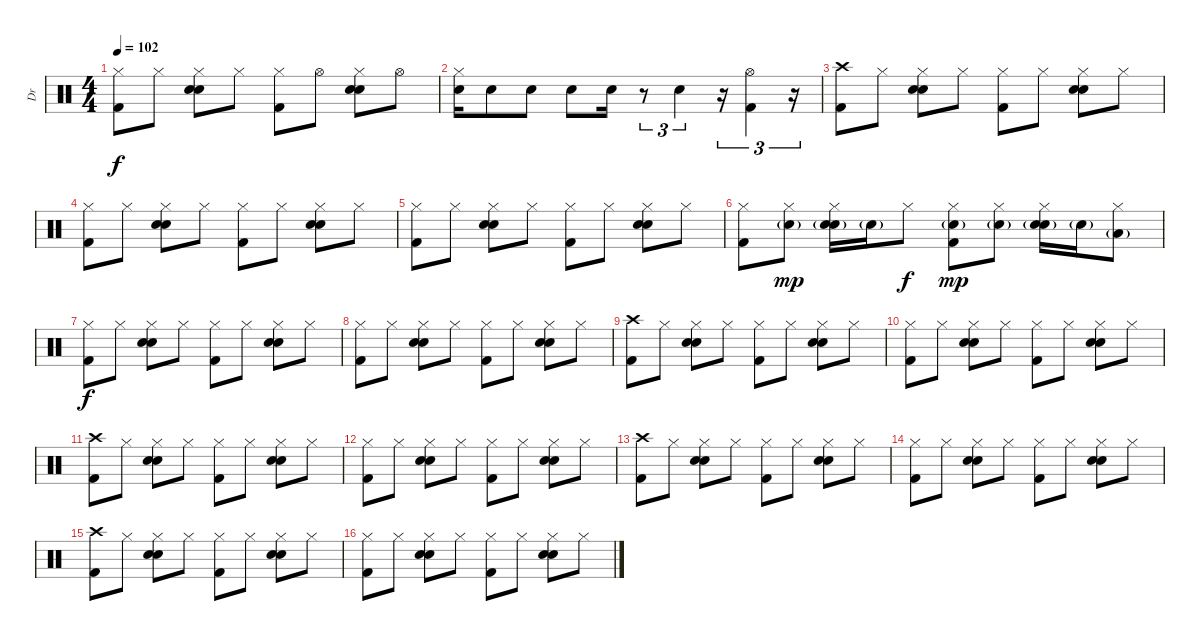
\track ("Dr" "Dr") {instrument percussion}
\staff {score}
\articulation defaults
\ts (4 4)
\tempo 102
\clef neutral
\ks c
("Hi-Hat (closed)" "Kick (hit) 2").8{dy f} "Hi-Hat (closed)".8 ("Hi-Hat (closed)" "Electric Snare (hit)" "Hand Clap (hit)").8 "Hi-Hat (closed)".8 ("Hi-Hat (closed)" "Kick (hit) 2").8 "Hi-Hat (open)".8 ("Hi-Hat (closed)" "Electric Snare (hit)" "Hand Clap (hit)").8 "Hi-Hat (open)".8 |
("Hi-Hat (closed)" "Electric Snare (hit)").16 "Electric Snare (hit)".8 "Electric Snare (hit)".8 "Electric Snare (hit)".8 "Electric Snare (hit)".16 r.8{tu (3 2)} "Electric Snare (hit)".4{tu (3 2)} r.16{tu (3 2)} ("Hi-Hat (open)" "Kick (hit) 2").4{tu (3 2)} r.16{tu (3 2)} |
("Crash high (hit)" "Kick (hit) 2").8 "Hi-Hat (closed)".8 ("Hi-Hat (closed)" "Electric Snare (hit)" "Hand Clap (hit)").8 "Hi-Hat (closed)".8 ("Hi-Hat (closed)" "Kick (hit) 2").8 "Hi-Hat (closed)".8 ("Hi-Hat (closed)" "Electric Snare (hit)" "Hand Clap (hit)").8 "Hi-Hat (closed)".8 |
("Hi-Hat (closed)" "Kick (hit) 2").8 "Hi-Hat (closed)".8 ("Hi-Hat (closed)" "Electric Snare (hit)" "Hand Clap (hit)").8 "Hi-Hat (closed)".8 ("Hi-Hat (closed)" "Kick (hit) 2").8 "Hi-Hat (closed)".8 ("Hi-Hat (closed)" "Electric Snare (hit)" "Hand Clap (hit)").8 "Hi-Hat (closed)".8 |
("Hi-Hat (closed)" "Kick (hit) 2").8 "Hi-Hat (closed)".8 ("Hi-Hat (closed)" "Electric Snare (hit)" "Hand Clap (hit)").8 "Hi-Hat (closed)".8 ("Hi-Hat (closed)" "Kick (hit) 2").8 "Hi-Hat (closed)".8 ("Hi-Hat (closed)" "Electric Snare (hit)" "Hand Clap (hit)").8 "Hi-Hat (closed)".8 |
("Hi-Hat (closed)" "Kick (hit) 2").8 ("Hi-Hat (closed)" "Electric Snare (hit)"{g}).8{dy mp} ("Hi-Hat (closed)" "Electric Snare (hit)"{g} "Hand Clap (hit)").16 "Electric Snare (hit)"{g}.16 "Hi-Hat (closed)".8{dy f} ("Hi-Hat (closed)" "Electric Snare (hit)"{g} "Kick (hit) 2").8{dy mp} ("Hi-Hat (closed)" "Electric Snare (hit)"{g}).8 ("Hi-Hat (closed)" "Electric Snare (hit)"{g} "Hand Clap (hit)").16 "Electric Snare (hit)"{g}.16 ("Hi-Hat (closed)" "Low Tom (hit)"{g}).8 |
("Hi-Hat (closed)" "Kick (hit) 2").8{dy f} "Hi-Hat (closed)".8 ("Hi-Hat (closed)" "Electric Snare (hit)" "Hand Clap (hit)").8 "Hi-Hat (closed)".8 ("Hi-Hat (closed)" "Kick (hit) 2").8 "Hi-Hat (closed)".8 ("Hi-Hat (closed)" "Electric Snare (hit)" "Hand Clap (hit)").8 "Hi-Hat (closed)".8 |
("Hi-Hat (closed)" "Kick (hit) 2").8 "Hi-Hat (closed)".8 ("Hi-Hat (closed)" "Electric Snare (hit)" "Hand Clap (hit)").8 "Hi-Hat (closed)".8 ("Hi-Hat (closed)" "Kick (hit) 2").8 "Hi-Hat (closed)".8 ("Hi-Hat (closed)" "Electric Snare (hit)" "Hand Clap (hit)").8 "Hi-Hat (closed)".8 |
("Crash high (hit)" "Kick (hit) 2").8 "Hi-Hat (closed)".8 ("Hi-Hat (closed)" "Electric Snare (hit)" "Hand Clap (hit)").8 "Hi-Hat (closed)".8 ("Hi-Hat (closed)" "Kick (hit) 2").8 "Hi-Hat (closed)".8 ("Hi-Hat (closed)" "Electric Snare (hit)" "Hand Clap (hit)").8 "Hi-Hat (closed)".8 |
("Hi-Hat (closed)" "Kick (hit) 2").8 "Hi-Hat (closed)".8 ("Hi-Hat (closed)" "Electric Snare (hit)" "Hand Clap (hit)").8 "Hi-Hat (closed)".8 ("Hi-Hat (closed)" "Kick (hit) 2").8 "Hi-Hat (closed)".8 ("Hi-Hat (closed)" "Electric Snare (hit)" "Hand Clap (hit)").8 "Hi-Hat (closed)".8 |
("Crash high (hit)" "Kick (hit) 2").8 "Hi-Hat (closed)".8 ("Hi-Hat (closed)" "Electric Snare (hit)" "Hand Clap (hit)").8 "Hi-Hat (closed)".8 ("Hi-Hat (closed)" "Kick (hit) 2").8 "Hi-Hat (closed)".8 ("Hi-Hat (closed)" "Electric Snare (hit)" "Hand Clap (hit)").8 "Hi-Hat (closed)".8 |
("Hi-Hat (closed)" "Kick (hit) 2").8 "Hi-Hat (closed)".8 ("Hi-Hat (closed)" "Electric Snare (hit)" "Hand Clap (hit)").8 "Hi-Hat (closed)".8 ("Hi-Hat (closed)" "Kick (hit) 2").8 "Hi-Hat (closed)".8 ("Hi-Hat (closed)" "Electric Snare (hit)" "Hand Clap (hit)").8 "Hi-Hat (closed)".8 |
("Crash high (hit)" "Kick (hit) 2").8 "Hi-Hat (closed)".8 ("Hi-Hat (closed)" "Electric Snare (hit)" "Hand Clap (hit)").8 "Hi-Hat (closed)".8 ("Hi-Hat (closed)" "Kick (hit) 2").8 "Hi-Hat (closed)".8 ("Hi-Hat (closed)" "Electric Snare (hit)" "Hand Clap (hit)").8 "Hi-Hat (closed)".8 |
("Hi-Hat (closed)" "Kick (hit) 2").8 "Hi-Hat (closed)".8 ("Hi-Hat (closed)" "Electric Snare (hit)" "Hand Clap (hit)").8 "Hi-Hat (closed)".8 ("Hi-Hat (closed)" "Kick (hit) 2").8 "Hi-Hat (closed)".8 ("Hi-Hat (closed)" "Electric Snare (hit)" "Hand Clap (hit)").8 "Hi-Hat (closed)".8 |
("Crash high (hit)" "Kick (hit) 2").8 "Hi-Hat (closed)".8 ("Hi-Hat (closed)" "Electric Snare (hit)" "Hand Clap (hit)").8 "Hi-Hat (closed)".8 ("Hi-Hat (closed)" "Kick (hit) 2").8 "Hi-Hat (closed)".8 ("Hi-Hat (closed)" "Electric Snare (hit)" "Hand Clap (hit)").8 "Hi-Hat (closed)".8 |
("Hi-Hat (closed)" "Kick (hit) 2").8 "Hi-Hat (closed)".8 ("Hi-Hat (closed)" "Electric Snare (hit)" "Hand Clap (hit)").8 "Hi-Hat (closed)".8 ("Hi-Hat (closed)" "Kick (hit) 2").8 "Hi-Hat (closed)".8 ("Hi-Hat (closed)" "Electric Snare (hit)" "Hand Clap (hit)").8 "Hi-Hat (closed)".8
